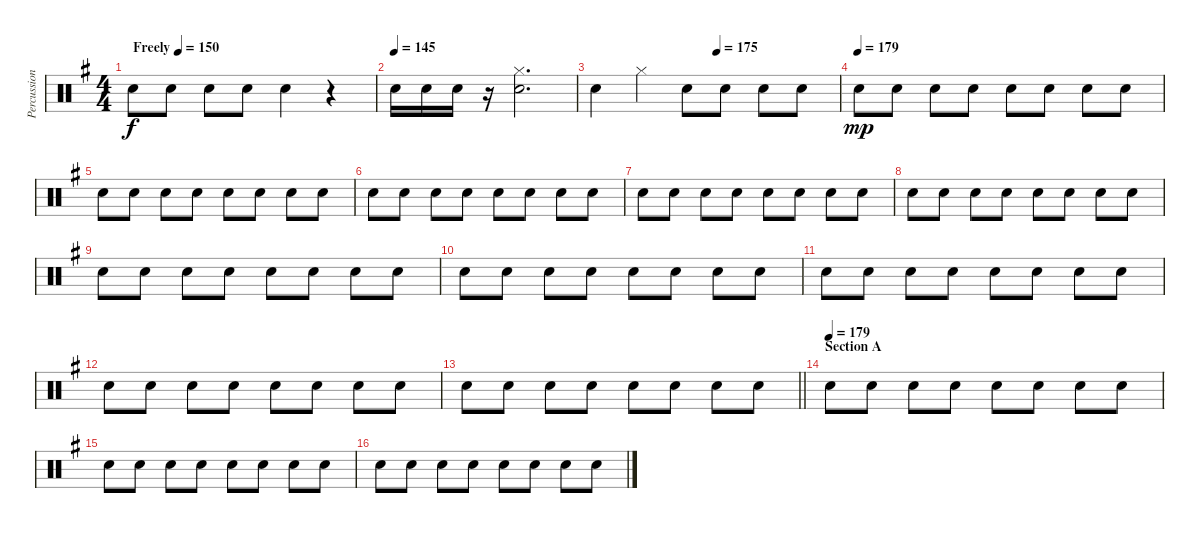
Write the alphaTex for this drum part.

\track ("Percussion 01" "Percussion") {instrument percussion}
\staff {score}
\articulation defaults
\ts (4 4)
\tempo (150 "Freely")
\clef neutral
\ks g "Snare (hit) 2".8{dy f} "Snare (hit) 2".8 "Snare (hit) 2".8 "Snare (hit) 2".8 "Snare (hit) 2".4
r.4 |
\tempo (145)
"Snare (hit) 2".16 "Snare (hit) 2".16 "Snare (hit) 2".16 r.16 ("Hi-Hat (closed)" "Snare (hit) 2").2{d} |
\tempo (175 0.5)
"Snare (hit) 2".4 "Hi-Hat (closed)".4 "Snare (hit) 2".8 "Snare (hit) 2".8 "Snare (hit) 2".8 "Snare (hit) 2".8 |
\tempo (179)
"Snare (hit) 2".8{dy mp} "Snare (hit) 2".8 "Snare (hit) 2".8 "Snare (hit) 2".8 "Snare (hit) 2".8 "Snare (hit) 2".8 "Snare (hit) 2".8 "Snare (hit) 2".8 |
"Snare (hit) 2".8 "Snare (hit) 2".8 "Snare (hit) 2".8 "Snare (hit) 2".8 "Snare (hit) 2".8 "Snare (hit) 2".8 "Snare (hit) 2".8 "Snare (hit) 2".8 |
"Snare (hit) 2".8 "Snare (hit) 2".8 "Snare (hit) 2".8 "Snare (hit) 2".8 "Snare (hit) 2".8 "Snare (hit) 2".8 "Snare (hit) 2".8 "Snare (hit) 2".8 |
"Snare (hit) 2".8 "Snare (hit) 2".8 "Snare (hit) 2".8 "Snare (hit) 2".8 "Snare (hit) 2".8 "Snare (hit) 2".8 "Snare (hit) 2".8 "Snare (hit) 2".8 |
"Snare (hit) 2".8 "Snare (hit) 2".8 "Snare (hit) 2".8 "Snare (hit) 2".8 "Snare (hit) 2".8 "Snare (hit) 2".8 "Snare (hit) 2".8 "Snare (hit) 2".8 |
"Snare (hit) 2".8 "Snare (hit) 2".8 "Snare (hit) 2".8 "Snare (hit) 2".8 "Snare (hit) 2".8 "Snare (hit) 2".8 "Snare (hit) 2".8 "Snare (hit) 2".8 |
"Snare (hit) 2".8 "Snare (hit) 2".8 "Snare (hit) 2".8 "Snare (hit) 2".8 "Snare (hit) 2".8 "Snare (hit) 2".8 "Snare (hit) 2".8 "Snare (hit) 2".8 |
"Snare (hit) 2".8 "Snare (hit) 2".8 "Snare (hit) 2".8 "Snare (hit) 2".8 "Snare (hit) 2".8 "Snare (hit) 2".8 "Snare (hit) 2".8 "Snare (hit) 2".8 |
"Snare (hit) 2".8 "Snare (hit) 2".8 "Snare (hit) 2".8 "Snare (hit) 2".8 "Snare (hit) 2".8 "Snare (hit) 2".8 "Snare (hit) 2".8 "Snare (hit) 2".8 |
\barLineRight lightlight "Snare (hit) 2".8 "Snare (hit) 2".8 "Snare (hit) 2".8 "Snare (hit) 2".8 "Snare (hit) 2".8 "Snare (hit) 2".8 "Snare (hit) 2".8 "Snare (hit) 2".8
|
\section ("" "Section A")
\tempo (179)
"Snare (hit) 2".8 "Snare (hit) 2".8 "Snare (hit) 2".8 "Snare (hit) 2".8 "Snare (hit) 2".8 "Snare (hit) 2".8 "Snare (hit) 2".8 "Snare (hit) 2".8 |
"Snare (hit) 2".8 "Snare (hit) 2".8 "Snare (hit) 2".8 "Snare (hit) 2".8 "Snare (hit) 2".8 "Snare (hit) 2".8 "Snare (hit) 2".8 "Snare (hit) 2".8 |
"Snare (hit) 2".8 "Snare (hit) 2".8 "Snare (hit) 2".8 "Snare (hit) 2".8 "Snare (hit) 2".8 "Snare (hit) 2".8 "Snare (hit) 2".8 "Snare (hit) 2".8
